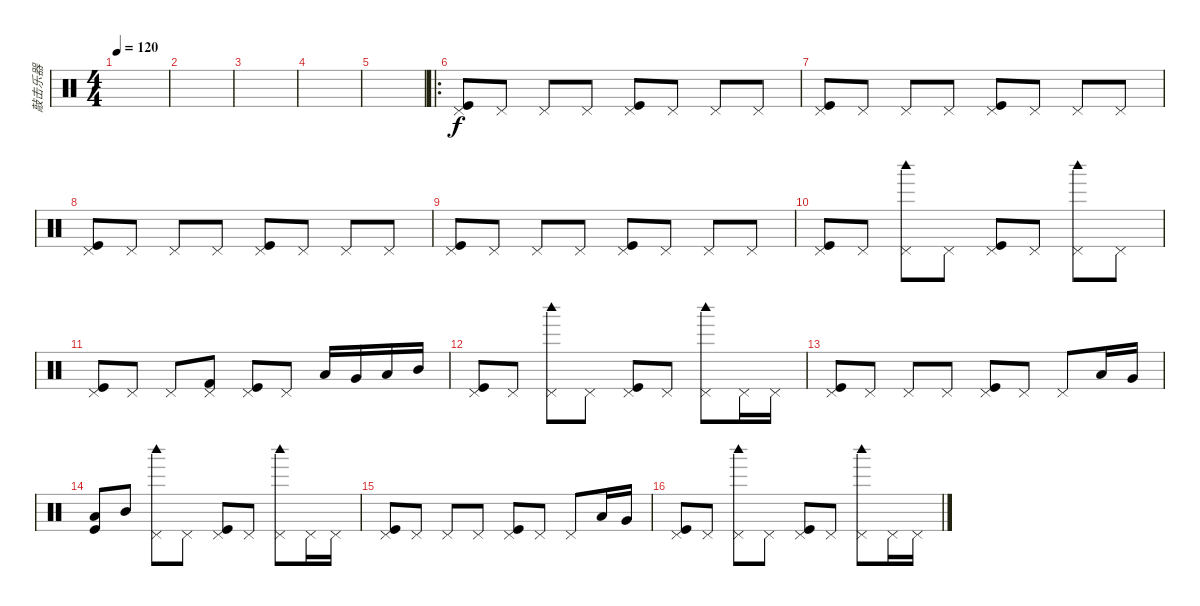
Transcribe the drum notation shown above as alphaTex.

\track ("敲击乐器" "敲击乐器") {instrument percussion}
\staff {score}
\articulation defaults
\ts (4 4)
\tempo 120
\clef neutral
\ks c
|
|
|
|
|
\ro
("Pedal Hi-Hat (hit)" "Kick (hit)").8 "Pedal Hi-Hat (hit)".8 "Pedal Hi-Hat (hit)".8 "Pedal Hi-Hat (hit)".8 ("Pedal Hi-Hat (hit)" "Kick (hit)").8 "Pedal Hi-Hat (hit)".8 "Pedal Hi-Hat (hit)".8 "Pedal Hi-Hat (hit)".8 |
("Pedal Hi-Hat (hit)" "Kick (hit)").8 "Pedal Hi-Hat (hit)".8 "Pedal Hi-Hat (hit)".8 "Pedal Hi-Hat (hit)".8 ("Pedal Hi-Hat (hit)" "Kick (hit)").8 "Pedal Hi-Hat (hit)".8 "Pedal Hi-Hat (hit)".8 "Pedal Hi-Hat (hit)".8 |
("Pedal Hi-Hat (hit)" "Kick (hit)").8 "Pedal Hi-Hat (hit)".8 "Pedal Hi-Hat (hit)".8 "Pedal Hi-Hat (hit)".8 ("Pedal Hi-Hat (hit)" "Kick (hit)").8 "Pedal Hi-Hat (hit)".8 "Pedal Hi-Hat (hit)".8 "Pedal Hi-Hat (hit)".8 |
("Pedal Hi-Hat (hit)" "Kick (hit)").8 "Pedal Hi-Hat (hit)".8 "Pedal Hi-Hat (hit)".8 "Pedal Hi-Hat (hit)".8 ("Pedal Hi-Hat (hit)" "Kick (hit)").8 "Pedal Hi-Hat (hit)".8 "Pedal Hi-Hat (hit)".8 "Pedal Hi-Hat (hit)".8 |
("Pedal Hi-Hat (hit)" "Kick (hit)").8 "Pedal Hi-Hat (hit)".8 ("Pedal Hi-Hat (hit)" "Woodblock high (hit)").8 "Pedal Hi-Hat (hit)".8 ("Pedal Hi-Hat (hit)" "Kick (hit)").8 "Pedal Hi-Hat (hit)".8 ("Pedal Hi-Hat (hit)" "Woodblock high (hit)").8 "Pedal Hi-Hat (hit)".8 |
("Pedal Hi-Hat (hit)" "Kick (hit)").8 "Pedal Hi-Hat (hit)".8 "Pedal Hi-Hat (hit)".8 ("Pedal Hi-Hat (hit)" "Kick (hit) 2").8 ("Pedal Hi-Hat (hit)" "Kick (hit)").8 "Pedal Hi-Hat (hit)".8 "Low Floor Tom (hit)".16 "Very Low Tom (hit)".16 "Low Tom (hit)".16 "Mid Tom (hit)".16 |
("Pedal Hi-Hat (hit)" "Kick (hit)").8 "Pedal Hi-Hat (hit)".8 ("Pedal Hi-Hat (hit)" "Woodblock high (hit)").8 "Pedal Hi-Hat (hit)".8 ("Pedal Hi-Hat (hit)" "Kick (hit)").8 "Pedal Hi-Hat (hit)".8 ("Pedal Hi-Hat (hit)" "Woodblock high (hit)").8 "Pedal Hi-Hat (hit)".16 "Pedal Hi-Hat (hit)".16 |
("Pedal Hi-Hat (hit)" "Kick (hit)").8 "Pedal Hi-Hat (hit)".8 "Pedal Hi-Hat (hit)".8 "Pedal Hi-Hat (hit)".8 ("Pedal Hi-Hat (hit)" "Kick (hit)").8 "Pedal Hi-Hat (hit)".8 "Pedal Hi-Hat (hit)".8 "Low Floor Tom (hit)".16 "Very Low Tom (hit)".16 |
("Low Tom (hit)" "Kick (hit)").8 "Mid Tom (hit)".8 ("Pedal Hi-Hat (hit)" "Woodblock high (hit)").8 "Pedal Hi-Hat (hit)".8 ("Pedal Hi-Hat (hit)" "Kick (hit)").8 "Pedal Hi-Hat (hit)".8 ("Pedal Hi-Hat (hit)" "Woodblock high (hit)").8 "Pedal Hi-Hat (hit)".16 "Pedal Hi-Hat (hit)".16 |
("Pedal Hi-Hat (hit)" "Kick (hit)").8 "Pedal Hi-Hat (hit)".8 "Pedal Hi-Hat (hit)".8 "Pedal Hi-Hat (hit)".8 ("Pedal Hi-Hat (hit)" "Kick (hit)").8 "Pedal Hi-Hat (hit)".8 "Pedal Hi-Hat (hit)".8 "Low Floor Tom (hit)".16 "Very Low Tom (hit)".16 |
("Pedal Hi-Hat (hit)" "Kick (hit)").8 "Pedal Hi-Hat (hit)".8 ("Pedal Hi-Hat (hit)" "Woodblock high (hit)").8 "Pedal Hi-Hat (hit)".8 ("Pedal Hi-Hat (hit)" "Kick (hit)").8 "Pedal Hi-Hat (hit)".8 ("Pedal Hi-Hat (hit)" "Woodblock high (hit)").8 "Pedal Hi-Hat (hit)".16 "Pedal Hi-Hat (hit)".16
